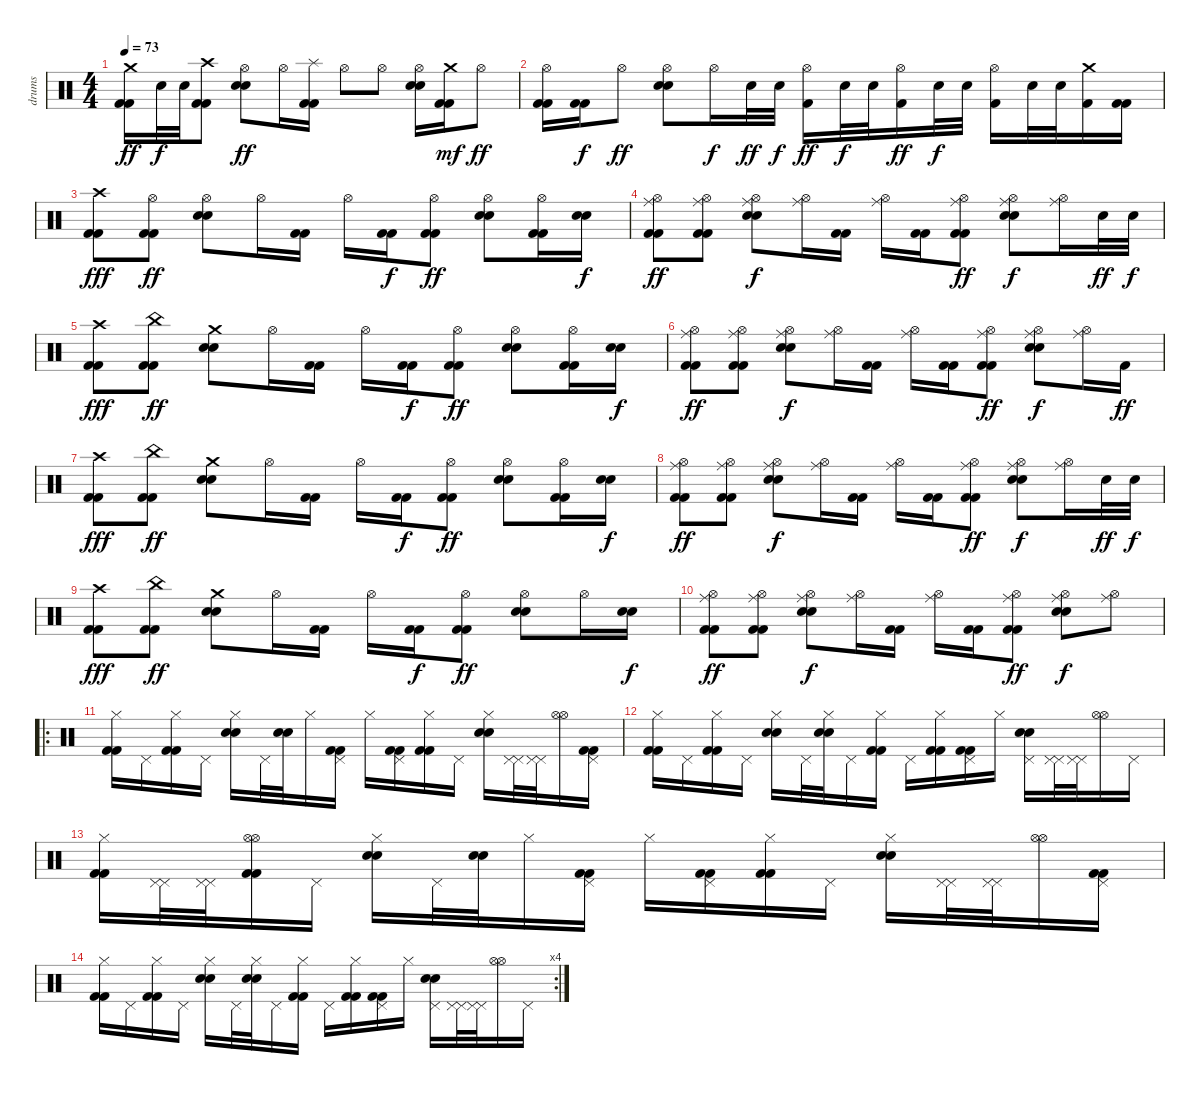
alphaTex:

\track ("drums" "drums") {instrument percussion}
\staff {score}
\articulation defaults
\ts (4 4)
\tempo 73
\clef neutral
\ks c
("Crash medium (hit)" "Kick (hit) 2" "Kick (hit) 2").16{dy ff} "Electric Snare (hit)".32{dy f} "Electric Snare (hit)".32 ("Crash high (hit)" "Kick (hit) 2" "Kick (hit) 2").8 ("Hi-Hat (open)" "Electric Snare (hit)" "Electric Snare (hit)").8{dy ff} "Hi-Hat (open)".16 ("Splash (hit)" "Kick (hit) 2" "Kick (hit) 2").16 "Hi-Hat (open)".8 "Hi-Hat (open)".8 ("Hi-Hat (open)" "Electric Snare (hit)" "Electric Snare (hit)").16 ("Crash medium (hit)" "Kick (hit) 2" "Kick (hit) 2").16{dy mf} "Hi-Hat (open)".8{dy ff} |
("Hi-Hat (open)" "Kick (hit) 2" "Kick (hit) 2").16 ("Kick (hit) 2" "Kick (hit) 2").16{dy f} "Hi-Hat (open)".8{dy ff} ("Hi-Hat (open)" "Electric Snare (hit)" "Electric Snare (hit)").8 "Hi-Hat (open)".16{dy f} "Electric Snare (hit)".32{dy ff} "Electric Snare (hit)".32{dy f} ("Hi-Hat (open)" "Kick (hit) 2").16{dy ff} "Electric Snare (hit)".32{dy f} "Electric Snare (hit)".32 ("Hi-Hat (open)" "Kick (hit) 2").16{dy ff} "Electric Snare (hit)".32{dy f} "Electric Snare (hit)".32 ("Hi-Hat (open)" "Kick (hit) 2").16 "Electric Snare (hit)".32 "Electric Snare (hit)".32 ("Kick (hit) 2" "Crash medium (hit)").16 ("Kick (hit) 2" "Kick (hit) 2").16 |
("Kick (hit) 2" "Kick (hit) 2" "Crash high (hit)").8{dy fff} ("Hi-Hat (open)" "Kick (hit) 2" "Kick (hit) 2").8{dy ff} ("Hi-Hat (open)" "Electric Snare (hit)" "Electric Snare (hit)").8 "Hi-Hat (open)".16 ("Kick (hit) 2" "Kick (hit) 2").16 "Hi-Hat (open)".16 ("Kick (hit) 2" "Kick (hit) 2").16{dy f} ("Hi-Hat (open)" "Kick (hit) 2" "Kick (hit) 2").8{dy ff} ("Hi-Hat (open)" "Electric Snare (hit)" "Electric Snare (hit)").8 ("Hi-Hat (open)" "Kick (hit) 2" "Kick (hit) 2").16 ("Electric Snare (hit)" "Electric Snare (hit)").16{dy f} |
("Hi-Hat (open)" "Ride (middle)" "Kick (hit) 2" "Kick (hit) 2").8{dy ff} ("Hi-Hat (open)" "Ride (middle)" "Kick (hit) 2" "Kick (hit) 2").8 ("Hi-Hat (open)" "Ride (middle)" "Electric Snare (hit)" "Electric Snare (hit)").8{dy f} ("Hi-Hat (open)" "Ride (middle)").16 ("Kick (hit) 2" "Kick (hit) 2").16 ("Hi-Hat (open)" "Ride (middle)").16 ("Kick (hit) 2" "Kick (hit) 2").16 ("Hi-Hat (open)" "Ride (middle)" "Kick (hit) 2" "Kick (hit) 2").8{dy ff} ("Hi-Hat (open)" "Ride (middle)" "Electric Snare (hit)" "Electric Snare (hit)").8{dy f} ("Hi-Hat (open)" "Ride (middle)").16 "Electric Snare (hit)".32{dy ff} "Electric Snare (hit)".32{dy f} |
("Kick (hit) 2" "Kick (hit) 2" "Crash high (hit)").8{dy fff} ("China (hit)" "Kick (hit) 2" "Kick (hit) 2").8{dy ff} ("Crash medium (hit)" "Electric Snare (hit)" "Electric Snare (hit)").8 "Hi-Hat (open)".16 ("Kick (hit) 2" "Kick (hit) 2").16 "Hi-Hat (open)".16 ("Kick (hit) 2" "Kick (hit) 2").16{dy f} ("Hi-Hat (open)" "Kick (hit) 2" "Kick (hit) 2").8{dy ff} ("Hi-Hat (open)" "Electric Snare (hit)" "Electric Snare (hit)").8 ("Hi-Hat (open)" "Kick (hit) 2" "Kick (hit) 2").16 ("Electric Snare (hit)" "Electric Snare (hit)").16{dy f} |
("Hi-Hat (open)" "Ride (middle)" "Kick (hit) 2" "Kick (hit) 2").8{dy ff} ("Hi-Hat (open)" "Ride (middle)" "Kick (hit) 2" "Kick (hit) 2").8 ("Hi-Hat (open)" "Ride (middle)" "Electric Snare (hit)" "Electric Snare (hit)").8{dy f} ("Hi-Hat (open)" "Ride (middle)").16 ("Kick (hit) 2" "Kick (hit) 2").16 ("Hi-Hat (open)" "Ride (middle)").16 ("Kick (hit) 2" "Kick (hit) 2").16 ("Hi-Hat (open)" "Ride (middle)" "Kick (hit) 2" "Kick (hit) 2").8{dy ff} ("Hi-Hat (open)" "Ride (middle)" "Electric Snare (hit)" "Electric Snare (hit)").8{dy f} ("Hi-Hat (open)" "Ride (middle)").16 "Kick (hit) 2".16{dy ff} |
("Kick (hit) 2" "Kick (hit) 2" "Crash high (hit)").8{dy fff} ("China (hit)" "Kick (hit) 2" "Kick (hit) 2").8{dy ff} ("Crash medium (hit)" "Electric Snare (hit)" "Electric Snare (hit)").8 "Hi-Hat (open)".16 ("Kick (hit) 2" "Kick (hit) 2").16 "Hi-Hat (open)".16 ("Kick (hit) 2" "Kick (hit) 2").16{dy f} ("Hi-Hat (open)" "Kick (hit) 2" "Kick (hit) 2").8{dy ff} ("Hi-Hat (open)" "Electric Snare (hit)" "Electric Snare (hit)").8 ("Hi-Hat (open)" "Kick (hit) 2" "Kick (hit) 2").16 ("Electric Snare (hit)" "Electric Snare (hit)").16{dy f} |
("Hi-Hat (open)" "Ride (middle)" "Kick (hit) 2" "Kick (hit) 2").8{dy ff} ("Hi-Hat (open)" "Ride (middle)" "Kick (hit) 2" "Kick (hit) 2").8 ("Hi-Hat (open)" "Ride (middle)" "Electric Snare (hit)" "Electric Snare (hit)").8{dy f} ("Hi-Hat (open)" "Ride (middle)").16 ("Kick (hit) 2" "Kick (hit) 2").16 ("Hi-Hat (open)" "Ride (middle)").16 ("Kick (hit) 2" "Kick (hit) 2").16 ("Hi-Hat (open)" "Ride (middle)" "Kick (hit) 2" "Kick (hit) 2").8{dy ff} ("Hi-Hat (open)" "Ride (middle)" "Electric Snare (hit)" "Electric Snare (hit)").8{dy f} ("Hi-Hat (open)" "Ride (middle)").16 "Electric Snare (hit)".32{dy ff} "Electric Snare (hit)".32{dy f} |
("Kick (hit) 2" "Kick (hit) 2" "Crash high (hit)").8{dy fff} ("China (hit)" "Kick (hit) 2" "Kick (hit) 2").8{dy ff} ("Crash medium (hit)" "Electric Snare (hit)" "Electric Snare (hit)").8 "Hi-Hat (open)".16 ("Kick (hit) 2" "Kick (hit) 2").16 "Hi-Hat (open)".16 ("Kick (hit) 2" "Kick (hit) 2").16{dy f} ("Hi-Hat (open)" "Kick (hit) 2" "Kick (hit) 2").8{dy ff} ("Hi-Hat (open)" "Electric Snare (hit)" "Electric Snare (hit)").8 "Hi-Hat (open)".16 ("Electric Snare (hit)" "Electric Snare (hit)").16{dy f} |
("Hi-Hat (open)" "Ride (middle)" "Kick (hit) 2" "Kick (hit) 2").8{dy ff} ("Hi-Hat (open)" "Ride (middle)" "Kick (hit) 2" "Kick (hit) 2").8 ("Hi-Hat (open)" "Ride (middle)" "Electric Snare (hit)" "Electric Snare (hit)").8{dy f} ("Hi-Hat (open)" "Ride (middle)").16 ("Kick (hit) 2" "Kick (hit) 2").16 ("Hi-Hat (open)" "Ride (middle)").16 ("Kick (hit) 2" "Kick (hit) 2").16 ("Hi-Hat (open)" "Ride (middle)" "Kick (hit) 2" "Kick (hit) 2").8{dy ff} ("Hi-Hat (open)" "Ride (middle)" "Electric Snare (hit)" "Electric Snare (hit)").8{dy f} ("Hi-Hat (open)" "Ride (middle)").8 |
\ro
("Hi-Hat (closed)" "Kick (hit) 2" "Kick (hit) 2").16 "Pedal Hi-Hat (hit)".16 ("Hi-Hat (closed)" "Kick (hit) 2" "Kick (hit) 2").16 "Pedal Hi-Hat (hit)".16 ("Hi-Hat (closed)" "Electric Snare (hit)" "Electric Snare (hit)").16 "Pedal Hi-Hat (hit)".32 ("Electric Snare (hit)" "Electric Snare (hit)").32 "Hi-Hat (closed)".16 ("Pedal Hi-Hat (hit)" "Kick (hit) 2" "Kick (hit) 2").16 "Hi-Hat (closed)".16 ("Pedal Hi-Hat (hit)" "Kick (hit) 2" "Kick (hit) 2").16 ("Hi-Hat (closed)" "Kick (hit) 2" "Kick (hit) 2").16 "Pedal Hi-Hat (hit)".16 ("Hi-Hat (closed)" "Electric Snare (hit)" "Electric Snare (hit)").16 ("Pedal Hi-Hat (hit)" "Pedal Hi-Hat (hit)").32 ("Pedal Hi-Hat (hit)" "Pedal Hi-Hat (hit)").32 ("Hi-Hat (open)" "Hi-Hat (open)").16 ("Pedal Hi-Hat (hit)" "Kick (hit) 2" "Kick (hit) 2").16 |
("Hi-Hat (closed)" "Kick (hit) 2" "Kick (hit) 2").16 "Pedal Hi-Hat (hit)".16 ("Hi-Hat (closed)" "Kick (hit) 2" "Kick (hit) 2").16 "Pedal Hi-Hat (hit)".16 ("Hi-Hat (closed)" "Electric Snare (hit)" "Electric Snare (hit)").16 "Pedal Hi-Hat (hit)".32 ("Hi-Hat (closed)" "Electric Snare (hit)" "Electric Snare (hit)").32 "Pedal Hi-Hat (hit)".16 ("Hi-Hat (closed)" "Kick (hit) 2" "Kick (hit) 2").16 "Pedal Hi-Hat (hit)".16 ("Hi-Hat (closed)" "Kick (hit) 2" "Kick (hit) 2").16 ("Pedal Hi-Hat (hit)" "Kick (hit) 2" "Kick (hit) 2").16 "Hi-Hat (closed)".16 ("Pedal Hi-Hat (hit)" "Electric Snare (hit)" "Electric Snare (hit)").16 ("Pedal Hi-Hat (hit)" "Pedal Hi-Hat (hit)").32 ("Pedal Hi-Hat (hit)" "Pedal Hi-Hat (hit)").32 ("Hi-Hat (open)" "Hi-Hat (open)").16 "Pedal Hi-Hat (hit)".16 |
("Hi-Hat (closed)" "Kick (hit) 2" "Kick (hit) 2").16 ("Pedal Hi-Hat (hit)" "Pedal Hi-Hat (hit)").32 ("Pedal Hi-Hat (hit)" "Pedal Hi-Hat (hit)").32 ("Hi-Hat (open)" "Hi-Hat (open)" "Kick (hit) 2" "Kick (hit) 2").16 "Pedal Hi-Hat (hit)".16 ("Hi-Hat (closed)" "Electric Snare (hit)" "Electric Snare (hit)").16 "Pedal Hi-Hat (hit)".32 ("Electric Snare (hit)" "Electric Snare (hit)").32 "Hi-Hat (closed)".16 ("Pedal Hi-Hat (hit)" "Kick (hit) 2" "Kick (hit) 2").16 "Hi-Hat (closed)".16 ("Pedal Hi-Hat (hit)" "Kick (hit) 2" "Kick (hit) 2").16 ("Hi-Hat (closed)" "Kick (hit) 2" "Kick (hit) 2").16 "Pedal Hi-Hat (hit)".16 ("Hi-Hat (closed)" "Electric Snare (hit)" "Electric Snare (hit)").16 ("Pedal Hi-Hat (hit)" "Pedal Hi-Hat (hit)").32 ("Pedal Hi-Hat (hit)" "Pedal Hi-Hat (hit)").32 ("Hi-Hat (open)" "Hi-Hat (open)").16 ("Pedal Hi-Hat (hit)" "Kick (hit) 2" "Kick (hit) 2").16 |
\rc 4
("Hi-Hat (closed)" "Kick (hit) 2" "Kick (hit) 2").16 "Pedal Hi-Hat (hit)".16 ("Hi-Hat (closed)" "Kick (hit) 2" "Kick (hit) 2").16 "Pedal Hi-Hat (hit)".16 ("Hi-Hat (closed)" "Electric Snare (hit)" "Electric Snare (hit)").16 "Pedal Hi-Hat (hit)".32 ("Hi-Hat (closed)" "Electric Snare (hit)" "Electric Snare (hit)").32 "Pedal Hi-Hat (hit)".16 ("Hi-Hat (closed)" "Kick (hit) 2" "Kick (hit) 2").16 "Pedal Hi-Hat (hit)".16 ("Hi-Hat (closed)" "Kick (hit) 2" "Kick (hit) 2").16 ("Pedal Hi-Hat (hit)" "Kick (hit) 2" "Kick (hit) 2").16 "Hi-Hat (closed)".16 ("Pedal Hi-Hat (hit)" "Electric Snare (hit)" "Electric Snare (hit)").16 ("Pedal Hi-Hat (hit)" "Pedal Hi-Hat (hit)").32 ("Pedal Hi-Hat (hit)" "Pedal Hi-Hat (hit)").32 ("Hi-Hat (open)" "Hi-Hat (open)").16 "Pedal Hi-Hat (hit)".16
